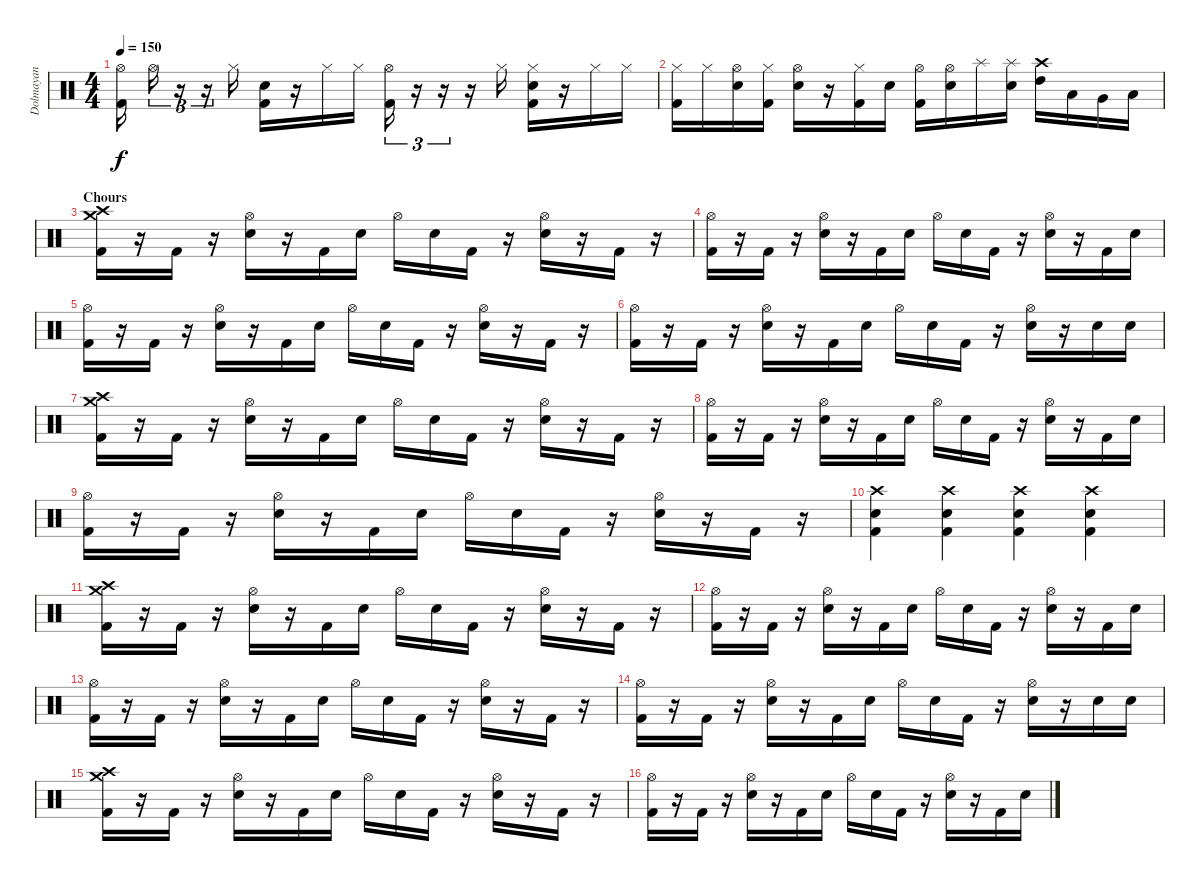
\track ("Dolmayan" "Dolmayan") {instrument percussion}
\staff {score}
\articulation defaults
\ts (4 4)
\tempo 150
\clef neutral
\ks c
("Hi-Hat (open)" "Kick (hit) 2").16{dy f} "Hi-Hat (open)".16{tu (3 2)} r.16{tu (3 2)} r.16{tu (3 2)} "Hi-Hat (closed)".16 ("Electric Snare (hit)" "Kick (hit) 2").16 r.16 "Hi-Hat (closed)".16 "Hi-Hat (closed)".16 ("Hi-Hat (open)" "Kick (hit) 2").16{tu (3 2)} r.16{tu (3 2)} r.16{tu (3 2)} r.16 "Hi-Hat (closed)".16 ("Hi-Hat (closed)" "Electric Snare (hit)" "Kick (hit) 2").16 r.16 "Hi-Hat (closed)".16 "Hi-Hat (closed)".16 |
("Hi-Hat (closed)" "Kick (hit) 2").16 "Hi-Hat (closed)".16 ("Hi-Hat (open)" "Electric Snare (hit)").16 ("Hi-Hat (closed)" "Kick (hit) 2").16 ("Hi-Hat (open)" "Electric Snare (hit)").16 r.16 ("Hi-Hat (closed)" "Kick (hit) 2").16 "Electric Snare (hit)".16 ("Hi-Hat (open)" "Kick (hit) 2").16 ("Hi-Hat (open)" "Electric Snare (hit)").16 "Splash (hit)".16 ("Splash (hit)" "Electric Snare (hit)").16 ("Crash high (hit)" "High Tom (hit)").16 "Low Tom (hit)".16 "Very Low Tom (hit)".16 "Low Floor Tom (hit)".16 |
\section ("" "Chours")
("Crash high (hit)" "Crash medium (hit)" "Kick (hit) 2").16 r.16 "Kick (hit) 2".16 r.16 ("Hi-Hat (open)" "Electric Snare (hit)").16 r.16 "Kick (hit) 2".16 "Electric Snare (hit)".16 "Hi-Hat (open)".16 "Electric Snare (hit)".16 "Kick (hit) 2".16 r.16 ("Hi-Hat (open)" "Electric Snare (hit)").16 r.16 "Kick (hit) 2".16 r.16 |
("Hi-Hat (open)" "Kick (hit) 2").16 r.16 "Kick (hit) 2".16 r.16 ("Hi-Hat (open)" "Electric Snare (hit)").16 r.16 "Kick (hit) 2".16 "Electric Snare (hit)".16 "Hi-Hat (open)".16 "Electric Snare (hit)".16 "Kick (hit) 2".16 r.16 ("Hi-Hat (open)" "Electric Snare (hit)").16 r.16 "Kick (hit) 2".16 "Electric Snare (hit)".16 |
("Hi-Hat (open)" "Kick (hit) 2").16 r.16 "Kick (hit) 2".16 r.16 ("Hi-Hat (open)" "Electric Snare (hit)").16 r.16 "Kick (hit) 2".16 "Electric Snare (hit)".16 "Hi-Hat (open)".16 "Electric Snare (hit)".16 "Kick (hit) 2".16 r.16 ("Hi-Hat (open)" "Electric Snare (hit)").16 r.16 "Kick (hit) 2".16 r.16 |
("Hi-Hat (open)" "Kick (hit) 2").16 r.16 "Kick (hit) 2".16 r.16 ("Hi-Hat (open)" "Electric Snare (hit)").16 r.16 "Kick (hit) 2".16 "Electric Snare (hit)".16 "Hi-Hat (open)".16 "Electric Snare (hit)".16 "Kick (hit) 2".16 r.16 ("Hi-Hat (open)" "Electric Snare (hit)").16 r.16 "Electric Snare (hit)".16 "Electric Snare (hit)".16 |
("Crash high (hit)" "Crash medium (hit)" "Kick (hit) 2").16 r.16 "Kick (hit) 2".16 r.16 ("Hi-Hat (open)" "Electric Snare (hit)").16 r.16 "Kick (hit) 2".16 "Electric Snare (hit)".16 "Hi-Hat (open)".16 "Electric Snare (hit)".16 "Kick (hit) 2".16 r.16 ("Hi-Hat (open)" "Electric Snare (hit)").16 r.16 "Kick (hit) 2".16 r.16 |
("Hi-Hat (open)" "Kick (hit) 2").16 r.16 "Kick (hit) 2".16 r.16 ("Hi-Hat (open)" "Electric Snare (hit)").16 r.16 "Kick (hit) 2".16 "Electric Snare (hit)".16 "Hi-Hat (open)".16 "Electric Snare (hit)".16 "Kick (hit) 2".16 r.16 ("Hi-Hat (open)" "Electric Snare (hit)").16 r.16 "Kick (hit) 2".16 "Electric Snare (hit)".16 |
("Hi-Hat (open)" "Kick (hit) 2").16 r.16 "Kick (hit) 2".16 r.16 ("Hi-Hat (open)" "Electric Snare (hit)").16 r.16 "Kick (hit) 2".16 "Electric Snare (hit)".16 "Hi-Hat (open)".16 "Electric Snare (hit)".16 "Kick (hit) 2".16 r.16 ("Hi-Hat (open)" "Electric Snare (hit)").16 r.16 "Kick (hit) 2".16 r.16 |
("Crash high (hit)" "Electric Snare (hit)" "Kick (hit) 2").4 ("Crash high (hit)" "Electric Snare (hit)" "Kick (hit) 2").4 ("Crash high (hit)" "Electric Snare (hit)" "Kick (hit) 2").4 ("Crash high (hit)" "Electric Snare (hit)" "Kick (hit) 2").4 |
("Crash high (hit)" "Crash medium (hit)" "Kick (hit) 2").16 r.16 "Kick (hit) 2".16 r.16 ("Hi-Hat (open)" "Electric Snare (hit)").16 r.16 "Kick (hit) 2".16 "Electric Snare (hit)".16 "Hi-Hat (open)".16 "Electric Snare (hit)".16 "Kick (hit) 2".16 r.16 ("Hi-Hat (open)" "Electric Snare (hit)").16 r.16 "Kick (hit) 2".16 r.16 |
("Hi-Hat (open)" "Kick (hit) 2").16 r.16 "Kick (hit) 2".16 r.16 ("Hi-Hat (open)" "Electric Snare (hit)").16 r.16 "Kick (hit) 2".16 "Electric Snare (hit)".16 "Hi-Hat (open)".16 "Electric Snare (hit)".16 "Kick (hit) 2".16 r.16 ("Hi-Hat (open)" "Electric Snare (hit)").16 r.16 "Kick (hit) 2".16 "Electric Snare (hit)".16 |
("Hi-Hat (open)" "Kick (hit) 2").16 r.16 "Kick (hit) 2".16 r.16 ("Hi-Hat (open)" "Electric Snare (hit)").16 r.16 "Kick (hit) 2".16 "Electric Snare (hit)".16 "Hi-Hat (open)".16 "Electric Snare (hit)".16 "Kick (hit) 2".16 r.16 ("Hi-Hat (open)" "Electric Snare (hit)").16 r.16 "Kick (hit) 2".16 r.16 |
("Hi-Hat (open)" "Kick (hit) 2").16 r.16 "Kick (hit) 2".16 r.16 ("Hi-Hat (open)" "Electric Snare (hit)").16 r.16 "Kick (hit) 2".16 "Electric Snare (hit)".16 "Hi-Hat (open)".16 "Electric Snare (hit)".16 "Kick (hit) 2".16 r.16 ("Hi-Hat (open)" "Electric Snare (hit)").16 r.16 "Electric Snare (hit)".16 "Electric Snare (hit)".16 |
("Crash high (hit)" "Crash medium (hit)" "Kick (hit) 2").16 r.16 "Kick (hit) 2".16 r.16 ("Hi-Hat (open)" "Electric Snare (hit)").16 r.16 "Kick (hit) 2".16 "Electric Snare (hit)".16 "Hi-Hat (open)".16 "Electric Snare (hit)".16 "Kick (hit) 2".16 r.16 ("Hi-Hat (open)" "Electric Snare (hit)").16 r.16 "Kick (hit) 2".16 r.16 |
("Hi-Hat (open)" "Kick (hit) 2").16 r.16 "Kick (hit) 2".16 r.16 ("Hi-Hat (open)" "Electric Snare (hit)").16 r.16 "Kick (hit) 2".16 "Electric Snare (hit)".16 "Hi-Hat (open)".16 "Electric Snare (hit)".16 "Kick (hit) 2".16 r.16 ("Hi-Hat (open)" "Electric Snare (hit)").16 r.16 "Kick (hit) 2".16 "Electric Snare (hit)".16
